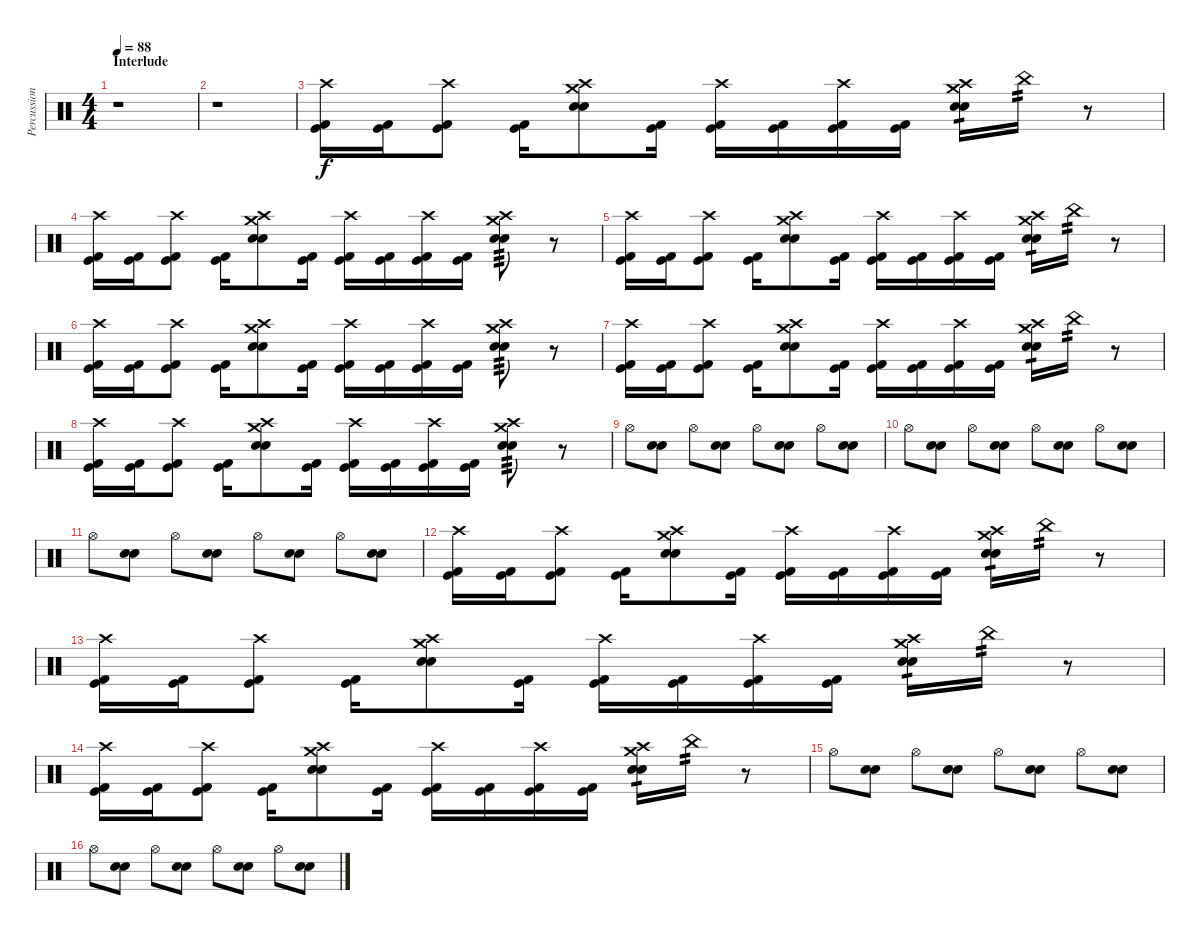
\track ("Percussion" "Percussion") {instrument percussion}
\staff {score}
\articulation defaults
\ts (4 4)
\section ("" "Interlude")
\tempo 88
\clef neutral
\ks c
r.1{dy f} |
r.1 |
("Kick (hit) 2" "Kick (hit)" "Crash high (hit)").16 ("Kick (hit) 2" "Kick (hit)").16 ("Kick (hit) 2" "Kick (hit)" "Crash high (hit)").8 ("Kick (hit) 2" "Kick (hit)").16 ("Electric Snare (hit)" "Crash medium (hit)" "Snare (hit) 2" "Crash high (hit)").8 ("Kick (hit) 2" "Kick (hit)").16 ("Kick (hit) 2" "Kick (hit)" "Crash high (hit)").16 ("Kick (hit) 2" "Kick (hit)").16 ("Kick (hit) 2" "Kick (hit)" "Crash high (hit)").16 ("Kick (hit) 2" "Kick (hit)").16 ("Electric Snare (hit)" "Crash medium (hit)" "Snare (hit) 2" "Crash high (hit)").16{tp 1} "China (hit)".16{tp 2} r.8 |
("Kick (hit) 2" "Kick (hit)" "Crash high (hit)").16 ("Kick (hit) 2" "Kick (hit)").16 ("Kick (hit) 2" "Kick (hit)" "Crash high (hit)").8 ("Kick (hit) 2" "Kick (hit)").16 ("Electric Snare (hit)" "Crash medium (hit)" "Snare (hit) 2" "Crash high (hit)").8 ("Kick (hit) 2" "Kick (hit)").16 ("Kick (hit) 2" "Kick (hit)" "Crash high (hit)").16 ("Kick (hit) 2" "Kick (hit)").16 ("Kick (hit) 2" "Kick (hit)" "Crash high (hit)").16 ("Kick (hit) 2" "Kick (hit)").16 ("Electric Snare (hit)" "Crash medium (hit)" "Snare (hit) 2" "Crash high (hit)").8{tp 3} r.8 |
("Kick (hit) 2" "Kick (hit)" "Crash high (hit)").16 ("Kick (hit) 2" "Kick (hit)").16 ("Kick (hit) 2" "Kick (hit)" "Crash high (hit)").8 ("Kick (hit) 2" "Kick (hit)").16 ("Electric Snare (hit)" "Crash medium (hit)" "Snare (hit) 2" "Crash high (hit)").8 ("Kick (hit) 2" "Kick (hit)").16 ("Kick (hit) 2" "Kick (hit)" "Crash high (hit)").16 ("Kick (hit) 2" "Kick (hit)").16 ("Kick (hit) 2" "Kick (hit)" "Crash high (hit)").16 ("Kick (hit) 2" "Kick (hit)").16 ("Electric Snare (hit)" "Crash medium (hit)" "Snare (hit) 2" "Crash high (hit)").16{tp 1} "China (hit)".16{tp 2} r.8 |
("Kick (hit) 2" "Kick (hit)" "Crash high (hit)").16 ("Kick (hit) 2" "Kick (hit)").16 ("Kick (hit) 2" "Kick (hit)" "Crash high (hit)").8 ("Kick (hit) 2" "Kick (hit)").16 ("Electric Snare (hit)" "Crash medium (hit)" "Snare (hit) 2" "Crash high (hit)").8 ("Kick (hit) 2" "Kick (hit)").16 ("Kick (hit) 2" "Kick (hit)" "Crash high (hit)").16 ("Kick (hit) 2" "Kick (hit)").16 ("Kick (hit) 2" "Kick (hit)" "Crash high (hit)").16 ("Kick (hit) 2" "Kick (hit)").16 ("Electric Snare (hit)" "Crash medium (hit)" "Snare (hit) 2" "Crash high (hit)").8{tp 3} r.8 |
("Kick (hit) 2" "Kick (hit)" "Crash high (hit)").16 ("Kick (hit) 2" "Kick (hit)").16 ("Kick (hit) 2" "Kick (hit)" "Crash high (hit)").8 ("Kick (hit) 2" "Kick (hit)").16 ("Electric Snare (hit)" "Crash medium (hit)" "Snare (hit) 2" "Crash high (hit)").8 ("Kick (hit) 2" "Kick (hit)").16 ("Kick (hit) 2" "Kick (hit)" "Crash high (hit)").16 ("Kick (hit) 2" "Kick (hit)").16 ("Kick (hit) 2" "Kick (hit)" "Crash high (hit)").16 ("Kick (hit) 2" "Kick (hit)").16 ("Electric Snare (hit)" "Crash medium (hit)" "Snare (hit) 2" "Crash high (hit)").16{tp 1} "China (hit)".16{tp 2} r.8 |
("Kick (hit) 2" "Kick (hit)" "Crash high (hit)").16 ("Kick (hit) 2" "Kick (hit)").16 ("Kick (hit) 2" "Kick (hit)" "Crash high (hit)").8 ("Kick (hit) 2" "Kick (hit)").16 ("Electric Snare (hit)" "Crash medium (hit)" "Snare (hit) 2" "Crash high (hit)").8 ("Kick (hit) 2" "Kick (hit)").16 ("Kick (hit) 2" "Kick (hit)" "Crash high (hit)").16 ("Kick (hit) 2" "Kick (hit)").16 ("Kick (hit) 2" "Kick (hit)" "Crash high (hit)").16 ("Kick (hit) 2" "Kick (hit)").16 ("Electric Snare (hit)" "Crash medium (hit)" "Snare (hit) 2" "Crash high (hit)").8{tp 3} r.8 |
"Hi-Hat (open)".8 ("Electric Snare (hit)" "Snare (hit) 2").8 "Hi-Hat (open)".8 ("Electric Snare (hit)" "Snare (hit) 2").8 "Hi-Hat (open)".8 ("Electric Snare (hit)" "Snare (hit) 2").8 "Hi-Hat (open)".8 ("Electric Snare (hit)" "Snare (hit) 2").8 |
"Hi-Hat (open)".8 ("Electric Snare (hit)" "Snare (hit) 2").8 "Hi-Hat (open)".8 ("Electric Snare (hit)" "Snare (hit) 2").8 "Hi-Hat (open)".8 ("Electric Snare (hit)" "Snare (hit) 2").8 "Hi-Hat (open)".8 ("Electric Snare (hit)" "Snare (hit) 2").8 |
"Hi-Hat (open)".8 ("Electric Snare (hit)" "Snare (hit) 2").8 "Hi-Hat (open)".8 ("Electric Snare (hit)" "Snare (hit) 2").8 "Hi-Hat (open)".8 ("Electric Snare (hit)" "Snare (hit) 2").8 "Hi-Hat (open)".8 ("Electric Snare (hit)" "Snare (hit) 2").8 |
("Kick (hit) 2" "Kick (hit)" "Crash high (hit)").16 ("Kick (hit) 2" "Kick (hit)").16 ("Kick (hit) 2" "Kick (hit)" "Crash high (hit)").8 ("Kick (hit) 2" "Kick (hit)").16 ("Electric Snare (hit)" "Crash medium (hit)" "Snare (hit) 2" "Crash high (hit)").8 ("Kick (hit) 2" "Kick (hit)").16 ("Kick (hit) 2" "Kick (hit)" "Crash high (hit)").16 ("Kick (hit) 2" "Kick (hit)").16 ("Kick (hit) 2" "Kick (hit)" "Crash high (hit)").16 ("Kick (hit) 2" "Kick (hit)").16 ("Electric Snare (hit)" "Crash medium (hit)" "Snare (hit) 2" "Crash high (hit)").16{tp 1} "China (hit)".16{tp 2} r.8 |
("Kick (hit) 2" "Kick (hit)" "Crash high (hit)").16 ("Kick (hit) 2" "Kick (hit)").16 ("Kick (hit) 2" "Kick (hit)" "Crash high (hit)").8 ("Kick (hit) 2" "Kick (hit)").16 ("Electric Snare (hit)" "Crash medium (hit)" "Snare (hit) 2" "Crash high (hit)").8 ("Kick (hit) 2" "Kick (hit)").16 ("Kick (hit) 2" "Kick (hit)" "Crash high (hit)").16 ("Kick (hit) 2" "Kick (hit)").16 ("Kick (hit) 2" "Kick (hit)" "Crash high (hit)").16 ("Kick (hit) 2" "Kick (hit)").16 ("Electric Snare (hit)" "Crash medium (hit)" "Snare (hit) 2" "Crash high (hit)").16{tp 1} "China (hit)".16{tp 2} r.8 |
("Kick (hit) 2" "Kick (hit)" "Crash high (hit)").16 ("Kick (hit) 2" "Kick (hit)").16 ("Kick (hit) 2" "Kick (hit)" "Crash high (hit)").8 ("Kick (hit) 2" "Kick (hit)").16 ("Electric Snare (hit)" "Crash medium (hit)" "Snare (hit) 2" "Crash high (hit)").8 ("Kick (hit) 2" "Kick (hit)").16 ("Kick (hit) 2" "Kick (hit)" "Crash high (hit)").16 ("Kick (hit) 2" "Kick (hit)").16 ("Kick (hit) 2" "Kick (hit)" "Crash high (hit)").16 ("Kick (hit) 2" "Kick (hit)").16 ("Electric Snare (hit)" "Crash medium (hit)" "Snare (hit) 2" "Crash high (hit)").16{tp 1} "China (hit)".16{tp 2} r.8 |
"Hi-Hat (open)".8 ("Electric Snare (hit)" "Snare (hit) 2").8 "Hi-Hat (open)".8 ("Electric Snare (hit)" "Snare (hit) 2").8 "Hi-Hat (open)".8 ("Electric Snare (hit)" "Snare (hit) 2").8 "Hi-Hat (open)".8 ("Electric Snare (hit)" "Snare (hit) 2").8 |
"Hi-Hat (open)".8 ("Electric Snare (hit)" "Snare (hit) 2").8 "Hi-Hat (open)".8 ("Electric Snare (hit)" "Snare (hit) 2").8 "Hi-Hat (open)".8 ("Electric Snare (hit)" "Snare (hit) 2").8 "Hi-Hat (open)".8 ("Electric Snare (hit)" "Snare (hit) 2").8
